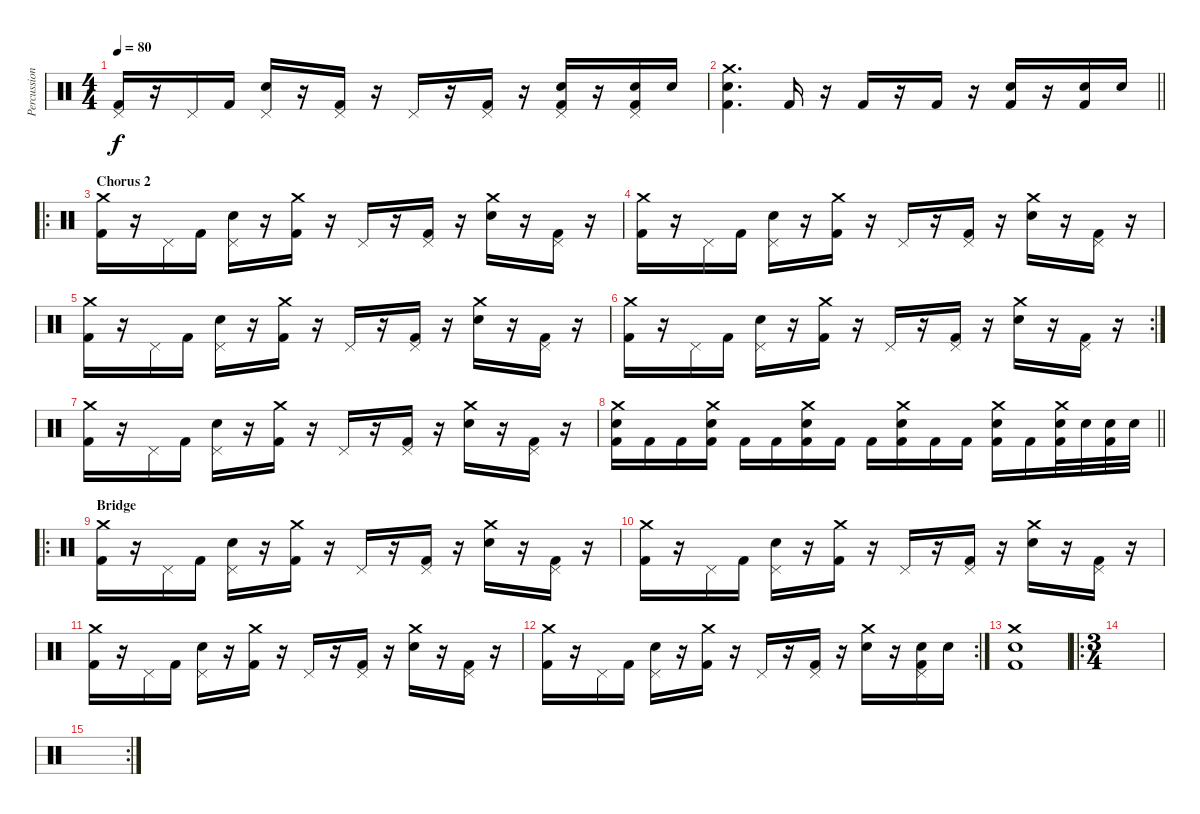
\track ("Percussion (N. Sanderson)" "Percussion") {instrument percussion}
\staff {score}
\articulation defaults
\ts (4 4)
\tempo 80
\clef neutral
\ks c
("Pedal Hi-Hat (hit)" "Kick (hit) 2").16{dy f} r.16 "Pedal Hi-Hat (hit)".16 "Kick (hit) 2".16 ("Pedal Hi-Hat (hit)" "Electric Snare (hit)").16 r.16 ("Pedal Hi-Hat (hit)" "Kick (hit) 2").16 r.16 "Pedal Hi-Hat (hit)".16 r.16 ("Pedal Hi-Hat (hit)" "Kick (hit) 2").16 r.16 ("Pedal Hi-Hat (hit)" "Electric Snare (hit)" "Kick (hit) 2").16 r.16 ("Pedal Hi-Hat (hit)" "Electric Snare (hit)" "Kick (hit) 2").16 "Electric Snare (hit)".16 |
\barLineRight lightlight
("Crash medium (hit)" "Electric Snare (hit)" "Kick (hit) 2").4{d} "Kick (hit) 2".16 r.16 "Kick (hit) 2".16 r.16 "Kick (hit) 2".16 r.16 ("Electric Snare (hit)" "Kick (hit) 2").16 r.16 ("Electric Snare (hit)" "Kick (hit) 2").16 "Electric Snare (hit)".16 |
\ro
\section ("" "Chorus 2")
("Crash medium (hit)" "Kick (hit) 2").16 r.16 "Pedal Hi-Hat (hit)".16 "Kick (hit) 2".16 ("Pedal Hi-Hat (hit)" "Electric Snare (hit)").16 r.16 ("Crash medium (hit)" "Kick (hit) 2").16 r.16 "Pedal Hi-Hat (hit)".16 r.16 ("Pedal Hi-Hat (hit)" "Kick (hit) 2").16 r.16 ("Crash medium (hit)" "Electric Snare (hit)").16 r.16 ("Pedal Hi-Hat (hit)" "Kick (hit) 2").16 r.16 |
("Crash medium (hit)" "Kick (hit) 2").16 r.16 "Pedal Hi-Hat (hit)".16 "Kick (hit) 2".16 ("Pedal Hi-Hat (hit)" "Electric Snare (hit)").16 r.16 ("Crash medium (hit)" "Kick (hit) 2").16 r.16 "Pedal Hi-Hat (hit)".16 r.16 ("Pedal Hi-Hat (hit)" "Kick (hit) 2").16 r.16 ("Crash medium (hit)" "Electric Snare (hit)").16 r.16 ("Pedal Hi-Hat (hit)" "Kick (hit) 2").16 r.16 |
("Crash medium (hit)" "Kick (hit) 2").16 r.16 "Pedal Hi-Hat (hit)".16 "Kick (hit) 2".16 ("Pedal Hi-Hat (hit)" "Electric Snare (hit)").16 r.16 ("Crash medium (hit)" "Kick (hit) 2").16 r.16 "Pedal Hi-Hat (hit)".16 r.16 ("Pedal Hi-Hat (hit)" "Kick (hit) 2").16 r.16 ("Crash medium (hit)" "Electric Snare (hit)").16 r.16 ("Pedal Hi-Hat (hit)" "Kick (hit) 2").16 r.16 |
\rc 2
("Crash medium (hit)" "Kick (hit) 2").16 r.16 "Pedal Hi-Hat (hit)".16 "Kick (hit) 2".16 ("Pedal Hi-Hat (hit)" "Electric Snare (hit)").16 r.16 ("Crash medium (hit)" "Kick (hit) 2").16 r.16 "Pedal Hi-Hat (hit)".16 r.16 ("Pedal Hi-Hat (hit)" "Kick (hit) 2").16 r.16 ("Crash medium (hit)" "Electric Snare (hit)").16 r.16 ("Pedal Hi-Hat (hit)" "Kick (hit) 2").16 r.16 |
("Crash medium (hit)" "Kick (hit) 2").16 r.16 "Pedal Hi-Hat (hit)".16 "Kick (hit) 2".16 ("Pedal Hi-Hat (hit)" "Electric Snare (hit)").16 r.16 ("Crash medium (hit)" "Kick (hit) 2").16 r.16 "Pedal Hi-Hat (hit)".16 r.16 ("Pedal Hi-Hat (hit)" "Kick (hit) 2").16 r.16 ("Crash medium (hit)" "Electric Snare (hit)").16 r.16 ("Pedal Hi-Hat (hit)" "Kick (hit) 2").16 r.16 |
\barLineRight lightlight
("Crash medium (hit)" "Electric Snare (hit)" "Kick (hit) 2").16 "Kick (hit) 2".16 "Kick (hit) 2".16 ("Crash medium (hit)" "Electric Snare (hit)" "Kick (hit) 2").16 "Kick (hit) 2".16 "Kick (hit) 2".16 ("Crash medium (hit)" "Electric Snare (hit)" "Kick (hit) 2").16 "Kick (hit) 2".16 "Kick (hit) 2".16 ("Crash medium (hit)" "Electric Snare (hit)" "Kick (hit) 2").16 "Kick (hit) 2".16 "Kick (hit) 2".16 ("Crash medium (hit)" "Electric Snare (hit)" "Kick (hit) 2").16 "Kick (hit) 2".16 ("Crash medium (hit)" "Electric Snare (hit)" "Kick (hit) 2").32 "Electric Snare (hit)".32 ("Electric Snare (hit)" "Kick (hit) 2").32 "Electric Snare (hit)".32 |
\ro
\section ("" "Bridge")
("Crash medium (hit)" "Kick (hit) 2").16 r.16 "Pedal Hi-Hat (hit)".16 "Kick (hit) 2".16 ("Pedal Hi-Hat (hit)" "Electric Snare (hit)").16 r.16 ("Crash medium (hit)" "Kick (hit) 2").16 r.16 "Pedal Hi-Hat (hit)".16 r.16 ("Pedal Hi-Hat (hit)" "Kick (hit) 2").16 r.16 ("Crash medium (hit)" "Electric Snare (hit)").16 r.16 ("Pedal Hi-Hat (hit)" "Kick (hit) 2").16 r.16 |
("Crash medium (hit)" "Kick (hit) 2").16 r.16 "Pedal Hi-Hat (hit)".16 "Kick (hit) 2".16 ("Pedal Hi-Hat (hit)" "Electric Snare (hit)").16 r.16 ("Crash medium (hit)" "Kick (hit) 2").16 r.16 "Pedal Hi-Hat (hit)".16 r.16 ("Pedal Hi-Hat (hit)" "Kick (hit) 2").16 r.16 ("Crash medium (hit)" "Electric Snare (hit)").16 r.16 ("Pedal Hi-Hat (hit)" "Kick (hit) 2").16 r.16 |
("Crash medium (hit)" "Kick (hit) 2").16 r.16 "Pedal Hi-Hat (hit)".16 "Kick (hit) 2".16 ("Pedal Hi-Hat (hit)" "Electric Snare (hit)").16 r.16 ("Crash medium (hit)" "Kick (hit) 2").16 r.16 "Pedal Hi-Hat (hit)".16 r.16 ("Pedal Hi-Hat (hit)" "Kick (hit) 2").16 r.16 ("Crash medium (hit)" "Electric Snare (hit)").16 r.16 ("Pedal Hi-Hat (hit)" "Kick (hit) 2").16 r.16 |
\rc 2
("Crash medium (hit)" "Kick (hit) 2").16 r.16 "Pedal Hi-Hat (hit)".16 "Kick (hit) 2".16 ("Pedal Hi-Hat (hit)" "Electric Snare (hit)").16 r.16 ("Crash medium (hit)" "Kick (hit) 2").16 r.16 "Pedal Hi-Hat (hit)".16 r.16 ("Pedal Hi-Hat (hit)" "Kick (hit) 2").16 r.16 ("Crash medium (hit)" "Electric Snare (hit)").16 r.16 ("Pedal Hi-Hat (hit)" "Electric Snare (hit)" "Kick (hit) 2").16 "Electric Snare (hit)".16 |
("Crash medium (hit)" "Electric Snare (hit)" "Kick (hit) 2").1{volume 10} |
\ro
\ts (3 4)
|
\rc 2
